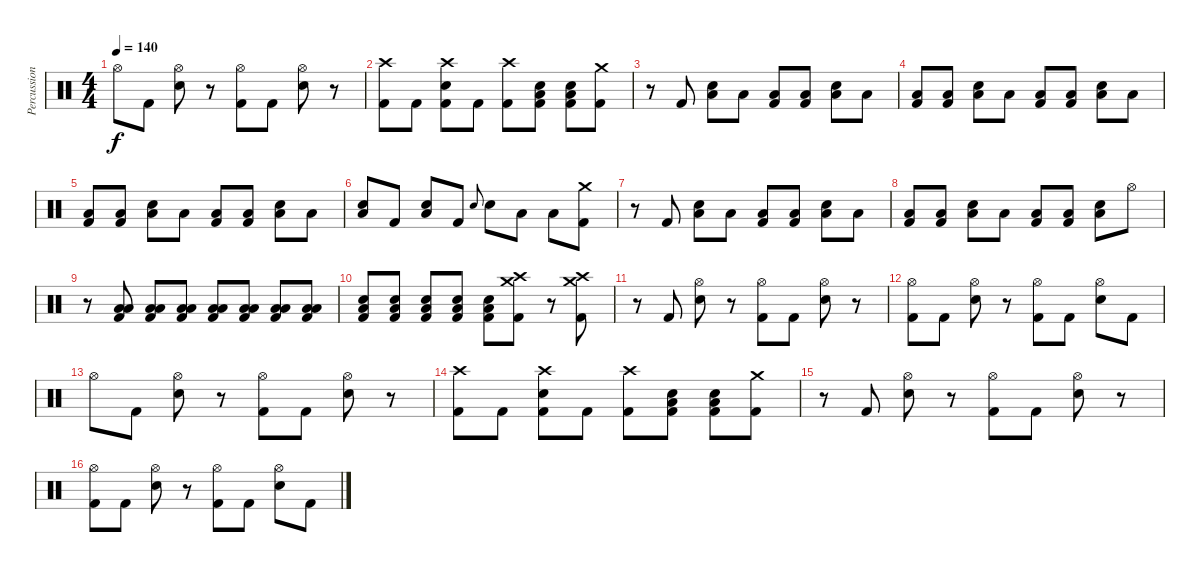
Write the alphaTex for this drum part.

\track ("Percussion" "Percussion") {instrument percussion}
\staff {score}
\articulation defaults
\ts (4 4)
\tempo 140
\clef neutral
\ks c "Hi-Hat (open)".8{dy f} "Kick (hit) 2".8
("Hi-Hat (open)" "Electric Snare (hit)").8 r.8 ("Hi-Hat (open)" "Kick (hit) 2").8 "Kick (hit) 2".8 ("Hi-Hat (open)" "Electric Snare (hit)").8 r.8 |
("Crash high (hit)" "Kick (hit) 2").8 "Kick (hit) 2".8 ("Crash high (hit)" "Electric Snare (hit)" "Kick (hit) 2").8 "Kick (hit) 2".8 ("Crash high (hit)" "Kick (hit) 2").8 ("Low Floor Tom (hit)" "Electric Snare (hit)" "Kick (hit) 2").8 ("Low Floor Tom (hit)" "Electric Snare (hit)" "Kick (hit) 2").8 ("Crash medium (hit)" "Kick (hit) 2").8 |
r.8 "Kick (hit) 2".8 ("Low Floor Tom (hit)" "Electric Snare (hit)").8 "Low Floor Tom (hit)".8 ("Low Floor Tom (hit)" "Kick (hit) 2").8 ("Low Floor Tom (hit)" "Kick (hit) 2").8 ("Low Floor Tom (hit)" "Electric Snare (hit)").8 "Low Floor Tom (hit)".8 |
("Low Floor Tom (hit)" "Kick (hit) 2").8 ("Low Floor Tom (hit)" "Kick (hit) 2").8 ("Low Floor Tom (hit)" "Electric Snare (hit)").8 "Low Floor Tom (hit)".8 ("Low Floor Tom (hit)" "Kick (hit) 2").8 ("Low Floor Tom (hit)" "Kick (hit) 2").8 ("Low Floor Tom (hit)" "Electric Snare (hit)").8 "Low Floor Tom (hit)".8 |
("Low Floor Tom (hit)" "Kick (hit) 2").8 ("Low Floor Tom (hit)" "Kick (hit) 2").8 ("Low Floor Tom (hit)" "Electric Snare (hit)").8 "Low Floor Tom (hit)".8 ("Low Floor Tom (hit)" "Kick (hit) 2").8 ("Low Floor Tom (hit)" "Kick (hit) 2").8 ("Low Floor Tom (hit)" "Electric Snare (hit)").8 "Low Floor Tom (hit)".8 |
("Low Floor Tom (hit)" "Electric Snare (hit)").8 "Kick (hit) 2".8 ("Low Floor Tom (hit)" "Electric Snare (hit)").8 "Kick (hit) 2".8 "Electric Snare (hit)".8{gr onbeat} "Electric Snare (hit)".8 "Low Tom (hit)".8 "Low Floor Tom (hit)".8 ("Crash medium (hit)" "Kick (hit) 2").8 |
r.8 "Kick (hit) 2".8 ("Low Floor Tom (hit)" "Electric Snare (hit)").8 "Low Floor Tom (hit)".8 ("Low Floor Tom (hit)" "Kick (hit) 2").8 ("Low Floor Tom (hit)" "Kick (hit) 2").8 ("Low Floor Tom (hit)" "Electric Snare (hit)").8 "Low Floor Tom (hit)".8 |
("Low Floor Tom (hit)" "Kick (hit) 2").8 ("Low Floor Tom (hit)" "Kick (hit) 2").8 ("Low Floor Tom (hit)" "Electric Snare (hit)").8 "Low Floor Tom (hit)".8 ("Low Floor Tom (hit)" "Kick (hit) 2").8 ("Low Floor Tom (hit)" "Kick (hit) 2").8 ("Low Floor Tom (hit)" "Electric Snare (hit)").8 "Hi-Hat (open)".8 |
r.8 ("Low Tom (hit)" "Low Floor Tom (hit)" "Kick (hit) 2").8 ("Low Tom (hit)" "Low Floor Tom (hit)" "Kick (hit) 2").8 ("Low Tom (hit)" "Low Floor Tom (hit)" "Kick (hit) 2").8 ("Low Tom (hit)" "Low Floor Tom (hit)" "Kick (hit) 2").8 ("Low Tom (hit)" "Low Floor Tom (hit)" "Kick (hit) 2").8 ("Low Tom (hit)" "Low Floor Tom (hit)" "Kick (hit) 2").8 ("Low Tom (hit)" "Low Floor Tom (hit)" "Kick (hit) 2").8 |
("Low Floor Tom (hit)" "Electric Snare (hit)" "Kick (hit) 2").8 ("Low Floor Tom (hit)" "Electric Snare (hit)" "Kick (hit) 2").8 ("Low Floor Tom (hit)" "Electric Snare (hit)" "Kick (hit) 2").8 ("Low Floor Tom (hit)" "Electric Snare (hit)" "Kick (hit) 2").8 ("Low Floor Tom (hit)" "Electric Snare (hit)" "Kick (hit) 2").8 ("Crash medium (hit)" "Crash high (hit)" "Kick (hit) 2").8 r.8 ("Crash medium (hit)" "Crash high (hit)" "Kick (hit) 2").8 |
r.8 "Kick (hit) 2".8 ("Hi-Hat (open)" "Electric Snare (hit)").8 r.8 ("Hi-Hat (open)" "Kick (hit) 2").8 "Kick (hit) 2".8 ("Hi-Hat (open)" "Electric Snare (hit)").8 r.8 |
("Hi-Hat (open)" "Kick (hit) 2").8 "Kick (hit) 2".8 ("Hi-Hat (open)" "Electric Snare (hit)").8 r.8 ("Hi-Hat (open)" "Kick (hit) 2").8 "Kick (hit) 2".8 ("Hi-Hat (open)" "Electric Snare (hit)").8 "Kick (hit) 2".8 |
"Hi-Hat (open)".8 "Kick (hit) 2".8 ("Hi-Hat (open)" "Electric Snare (hit)").8 r.8 ("Hi-Hat (open)" "Kick (hit) 2").8 "Kick (hit) 2".8 ("Hi-Hat (open)" "Electric Snare (hit)").8 r.8 |
("Crash high (hit)" "Kick (hit) 2").8 "Kick (hit) 2".8 ("Crash high (hit)" "Electric Snare (hit)" "Kick (hit) 2").8 "Kick (hit) 2".8 ("Crash high (hit)" "Kick (hit) 2").8 ("Low Floor Tom (hit)" "Electric Snare (hit)" "Kick (hit) 2").8 ("Low Floor Tom (hit)" "Electric Snare (hit)" "Kick (hit) 2").8 ("Crash medium (hit)" "Kick (hit) 2").8 |
r.8 "Kick (hit) 2".8 ("Hi-Hat (open)" "Electric Snare (hit)").8 r.8 ("Hi-Hat (open)" "Kick (hit) 2").8 "Kick (hit) 2".8 ("Hi-Hat (open)" "Electric Snare (hit)").8 r.8 |
("Hi-Hat (open)" "Kick (hit) 2").8 "Kick (hit) 2".8 ("Hi-Hat (open)" "Electric Snare (hit)").8 r.8 ("Hi-Hat (open)" "Kick (hit) 2").8 "Kick (hit) 2".8 ("Hi-Hat (open)" "Electric Snare (hit)").8 "Kick (hit) 2".8
